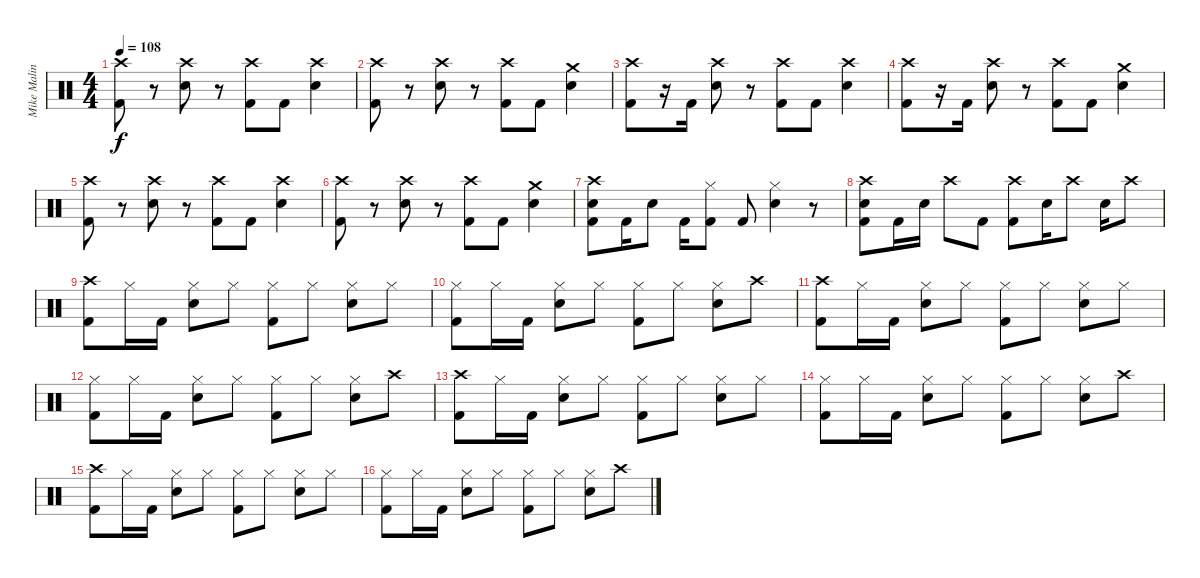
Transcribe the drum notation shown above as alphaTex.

\track ("Mike Malinin (Drums)" "Mike Malin") {instrument percussion}
\staff {score}
\articulation defaults
\ts (4 4)
\tempo 108
\clef neutral
\ks c
("Crash high (hit)" "Kick (hit) 2").8{dy f} r.8 ("Crash high (hit)" "Electric Snare (hit)").8 r.8 ("Crash high (hit)" "Kick (hit) 2").8 "Kick (hit) 2".8 ("Crash high (hit)" "Electric Snare (hit)").4 |
("Crash high (hit)" "Kick (hit) 2").8 r.8 ("Crash high (hit)" "Electric Snare (hit)").8 r.8 ("Crash high (hit)" "Kick (hit) 2").8 "Kick (hit) 2".8 ("Crash medium (hit)" "Electric Snare (hit)").4 |
("Crash high (hit)" "Kick (hit) 2").8 r.16 "Kick (hit) 2".16 ("Crash high (hit)" "Electric Snare (hit)").8 r.8 ("Crash high (hit)" "Kick (hit) 2").8 "Kick (hit) 2".8 ("Crash high (hit)" "Electric Snare (hit)").4 |
("Crash high (hit)" "Kick (hit) 2").8 r.16 "Kick (hit) 2".16 ("Crash high (hit)" "Electric Snare (hit)").8 r.8 ("Crash high (hit)" "Kick (hit) 2").8 "Kick (hit) 2".8 ("Crash medium (hit)" "Electric Snare (hit)").4 |
("Crash high (hit)" "Kick (hit) 2").8 r.8 ("Crash high (hit)" "Electric Snare (hit)").8 r.8 ("Crash high (hit)" "Kick (hit) 2").8 "Kick (hit) 2".8 ("Crash high (hit)" "Electric Snare (hit)").4 |
("Crash high (hit)" "Kick (hit) 2").8 r.8 ("Crash high (hit)" "Electric Snare (hit)").8 r.8 ("Crash high (hit)" "Kick (hit) 2").8 "Kick (hit) 2".8 ("Crash medium (hit)" "Electric Snare (hit)").4 |
("Crash high (hit)" "Electric Snare (hit)" "Kick (hit) 2").8 "Kick (hit) 2".16 "Electric Snare (hit)".8 "Kick (hit) 2".16 ("Hi-Hat (closed)" "Kick (hit) 2").8 "Kick (hit) 2".8 ("Hi-Hat (closed)" "Electric Snare (hit)").4 r.8 |
("Crash high (hit)" "Electric Snare (hit)" "Kick (hit) 2").8 "Kick (hit) 2".16 "Electric Snare (hit)".16 "Crash high (hit)".8 "Kick (hit) 2".8 ("Crash high (hit)" "Kick (hit) 2").8 "Electric Snare (hit)".16 "Crash high (hit)".8 "Electric Snare (hit)".16 "Crash high (hit)".8 |
("Crash high (hit)" "Kick (hit) 2").8 "Hi-Hat (closed)".16 "Kick (hit) 2".16 ("Hi-Hat (closed)" "Electric Snare (hit)").8 "Hi-Hat (closed)".8 ("Hi-Hat (closed)" "Kick (hit) 2").8 "Hi-Hat (closed)".8 ("Hi-Hat (closed)" "Electric Snare (hit)").8 "Hi-Hat (closed)".8 |
("Hi-Hat (closed)" "Kick (hit) 2").8 "Hi-Hat (closed)".16 "Kick (hit) 2".16 ("Hi-Hat (closed)" "Electric Snare (hit)").8 "Hi-Hat (closed)".8 ("Hi-Hat (closed)" "Kick (hit) 2").8 "Hi-Hat (closed)".8 ("Hi-Hat (closed)" "Electric Snare (hit)").8 "Crash high (hit)".8 |
("Crash high (hit)" "Kick (hit) 2").8 "Hi-Hat (closed)".16 "Kick (hit) 2".16 ("Hi-Hat (closed)" "Electric Snare (hit)").8 "Hi-Hat (closed)".8 ("Hi-Hat (closed)" "Kick (hit) 2").8 "Hi-Hat (closed)".8 ("Hi-Hat (closed)" "Electric Snare (hit)").8 "Hi-Hat (closed)".8 |
("Hi-Hat (closed)" "Kick (hit) 2").8 "Hi-Hat (closed)".16 "Kick (hit) 2".16 ("Hi-Hat (closed)" "Electric Snare (hit)").8 "Hi-Hat (closed)".8 ("Hi-Hat (closed)" "Kick (hit) 2").8 "Hi-Hat (closed)".8 ("Hi-Hat (closed)" "Electric Snare (hit)").8 "Crash high (hit)".8 |
("Crash high (hit)" "Kick (hit) 2").8 "Hi-Hat (closed)".16 "Kick (hit) 2".16 ("Hi-Hat (closed)" "Electric Snare (hit)").8 "Hi-Hat (closed)".8 ("Hi-Hat (closed)" "Kick (hit) 2").8 "Hi-Hat (closed)".8 ("Hi-Hat (closed)" "Electric Snare (hit)").8 "Hi-Hat (closed)".8 |
("Hi-Hat (closed)" "Kick (hit) 2").8 "Hi-Hat (closed)".16 "Kick (hit) 2".16 ("Hi-Hat (closed)" "Electric Snare (hit)").8 "Hi-Hat (closed)".8 ("Hi-Hat (closed)" "Kick (hit) 2").8 "Hi-Hat (closed)".8 ("Hi-Hat (closed)" "Electric Snare (hit)").8 "Crash high (hit)".8 |
("Crash high (hit)" "Kick (hit) 2").8 "Hi-Hat (closed)".16 "Kick (hit) 2".16 ("Hi-Hat (closed)" "Electric Snare (hit)").8 "Hi-Hat (closed)".8 ("Hi-Hat (closed)" "Kick (hit) 2").8 "Hi-Hat (closed)".8 ("Hi-Hat (closed)" "Electric Snare (hit)").8 "Hi-Hat (closed)".8 |
("Hi-Hat (closed)" "Kick (hit) 2").8 "Hi-Hat (closed)".16 "Kick (hit) 2".16 ("Hi-Hat (closed)" "Electric Snare (hit)").8 "Hi-Hat (closed)".8 ("Hi-Hat (closed)" "Kick (hit) 2").8 "Hi-Hat (closed)".8 ("Hi-Hat (closed)" "Electric Snare (hit)").8 "Crash high (hit)".8
